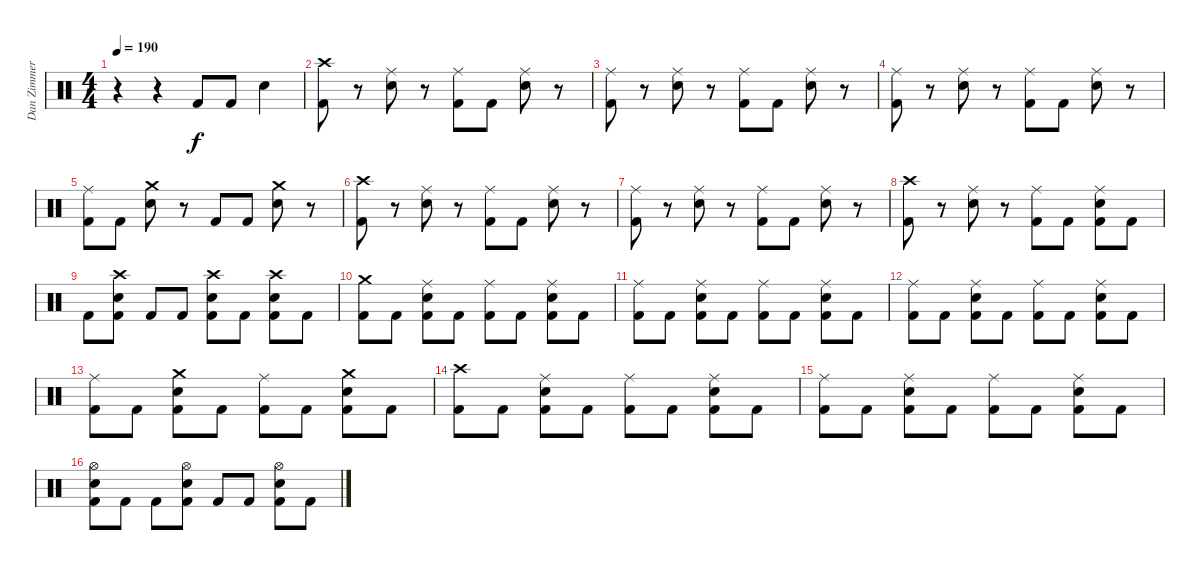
\track ("Dan Zimmermann" "Dan Zimmer") {instrument percussion}
\staff {score}
\articulation defaults
\ts (4 4)
\tempo 190
\clef neutral
\ks c
r.4{dy f} r.4 "Kick (hit) 2".8 "Kick (hit) 2".8 "Electric Snare (hit)".4 |
("Crash high (hit)" "Kick (hit) 2").8 r.8 ("Ride (middle)" "Electric Snare (hit)").8 r.8 ("Ride (middle)" "Kick (hit) 2").8 "Kick (hit) 2".8 ("Ride (middle)" "Electric Snare (hit)").8 r.8 |
("Ride (middle)" "Kick (hit) 2").8 r.8 ("Ride (middle)" "Electric Snare (hit)").8 r.8 ("Ride (middle)" "Kick (hit) 2").8 "Kick (hit) 2".8 ("Ride (middle)" "Electric Snare (hit)").8 r.8 |
("Ride (middle)" "Kick (hit) 2").8 r.8 ("Ride (middle)" "Electric Snare (hit)").8 r.8 ("Ride (middle)" "Kick (hit) 2").8 "Kick (hit) 2".8 ("Ride (middle)" "Electric Snare (hit)").8 r.8 |
("Ride (middle)" "Kick (hit) 2").8 "Kick (hit) 2".8 ("Crash medium (hit)" "Electric Snare (hit)").8 r.8 "Kick (hit) 2".8 "Kick (hit) 2".8 ("Crash medium (hit)" "Electric Snare (hit)").8 r.8 |
("Crash high (hit)" "Kick (hit) 2").8 r.8 ("Ride (middle)" "Electric Snare (hit)").8 r.8 ("Ride (middle)" "Kick (hit) 2").8 "Kick (hit) 2".8 ("Ride (middle)" "Electric Snare (hit)").8 r.8 |
("Ride (middle)" "Kick (hit) 2").8 r.8 ("Ride (middle)" "Electric Snare (hit)").8 r.8 ("Ride (middle)" "Kick (hit) 2").8 "Kick (hit) 2".8 ("Ride (middle)" "Electric Snare (hit)").8 r.8 |
("Crash high (hit)" "Kick (hit) 2").8 r.8 ("Ride (middle)" "Electric Snare (hit)").8 r.8 ("Ride (middle)" "Kick (hit) 2").8 "Kick (hit) 2".8 ("Ride (middle)" "Electric Snare (hit)" "Kick (hit) 2").8 "Kick (hit) 2".8 |
"Kick (hit) 2".8 ("Crash high (hit)" "Electric Snare (hit)" "Kick (hit) 2").8 "Kick (hit) 2".8 "Kick (hit) 2".8 ("Crash high (hit)" "Electric Snare (hit)" "Kick (hit) 2").8 "Kick (hit) 2".8 ("Crash high (hit)" "Electric Snare (hit)" "Kick (hit) 2").8 "Kick (hit) 2".8 |
("Crash medium (hit)" "Kick (hit) 2").8 "Kick (hit) 2".8 ("Ride (middle)" "Electric Snare (hit)" "Kick (hit) 2").8 "Kick (hit) 2".8 ("Ride (middle)" "Kick (hit) 2").8 "Kick (hit) 2".8 ("Ride (middle)" "Electric Snare (hit)" "Kick (hit) 2").8 "Kick (hit) 2".8 |
("Ride (middle)" "Kick (hit) 2").8 "Kick (hit) 2".8 ("Ride (middle)" "Electric Snare (hit)" "Kick (hit) 2").8 "Kick (hit) 2".8 ("Ride (middle)" "Kick (hit) 2").8 "Kick (hit) 2".8 ("Ride (middle)" "Electric Snare (hit)" "Kick (hit) 2").8 "Kick (hit) 2".8 |
("Ride (middle)" "Kick (hit) 2").8 "Kick (hit) 2".8 ("Ride (middle)" "Electric Snare (hit)" "Kick (hit) 2").8 "Kick (hit) 2".8 ("Ride (middle)" "Kick (hit) 2").8 "Kick (hit) 2".8 ("Ride (middle)" "Electric Snare (hit)" "Kick (hit) 2").8 "Kick (hit) 2".8 |
("Ride (middle)" "Kick (hit) 2").8 "Kick (hit) 2".8 ("Crash medium (hit)" "Electric Snare (hit)" "Kick (hit) 2").8 "Kick (hit) 2".8 ("Ride (middle)" "Kick (hit) 2").8 "Kick (hit) 2".8 ("Crash medium (hit)" "Electric Snare (hit)" "Kick (hit) 2").8 "Kick (hit) 2".8 |
("Crash high (hit)" "Kick (hit) 2").8 "Kick (hit) 2".8 ("Ride (middle)" "Electric Snare (hit)" "Kick (hit) 2").8 "Kick (hit) 2".8 ("Ride (middle)" "Kick (hit) 2").8 "Kick (hit) 2".8 ("Ride (middle)" "Electric Snare (hit)" "Kick (hit) 2").8 "Kick (hit) 2".8 |
("Ride (middle)" "Kick (hit) 2").8 "Kick (hit) 2".8 ("Ride (middle)" "Electric Snare (hit)" "Kick (hit) 2").8 "Kick (hit) 2".8 ("Ride (middle)" "Kick (hit) 2").8 "Kick (hit) 2".8 ("Ride (middle)" "Electric Snare (hit)" "Kick (hit) 2").8 "Kick (hit) 2".8 |
("Hi-Hat (open)" "Electric Snare (hit)" "Kick (hit) 2").8 "Kick (hit) 2".8 "Kick (hit) 2".8 ("Hi-Hat (open)" "Electric Snare (hit)" "Kick (hit) 2").8 "Kick (hit) 2".8 "Kick (hit) 2".8 ("Hi-Hat (open)" "Electric Snare (hit)" "Kick (hit) 2").8 "Kick (hit) 2".8
